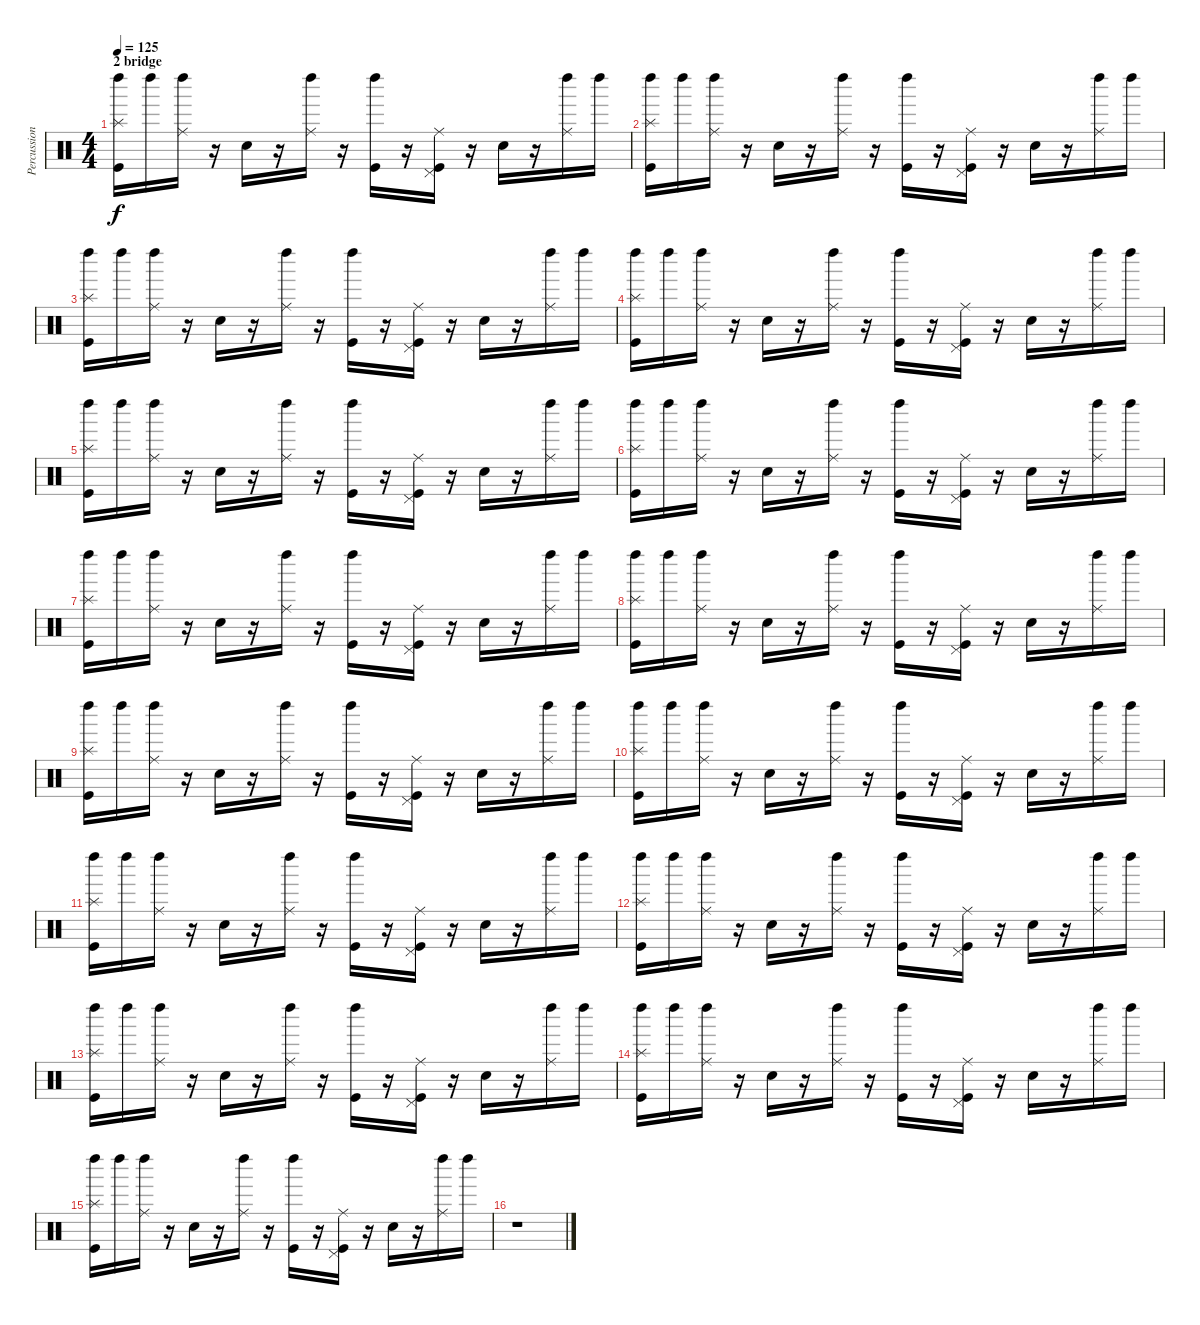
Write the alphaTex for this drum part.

\track ("Percussions" "Percussion") {instrument percussion}
\staff {score}
\articulation defaults
\ts (4 4)
\section ("" "2 bridge")
\tempo 125
\clef neutral
\ks c
("Splash (hit)" "Left Maraca (hit)" "Kick (hit)").16{dy f} "Left Maraca (hit)".16 ("Ride (middle)" "Left Maraca (hit)").16 r.16 "Snare (hit) 2".16 r.16 ("Ride (middle)" "Left Maraca (hit)").16 r.16 ("Left Maraca (hit)" "Kick (hit)").16 r.16 ("Ride (middle)" "Pedal Hi-Hat (hit)" "Kick (hit)").16 r.16 "Snare (hit) 2".16 r.16 ("Ride (middle)" "Left Maraca (hit)").16 "Left Maraca (hit)".16 |
("Splash (hit)" "Left Maraca (hit)" "Kick (hit)").16 "Left Maraca (hit)".16 ("Ride (middle)" "Left Maraca (hit)").16 r.16 "Snare (hit) 2".16 r.16 ("Ride (middle)" "Left Maraca (hit)").16 r.16 ("Left Maraca (hit)" "Kick (hit)").16 r.16 ("Ride (middle)" "Pedal Hi-Hat (hit)" "Kick (hit)").16 r.16 "Snare (hit) 2".16 r.16 ("Ride (middle)" "Left Maraca (hit)").16 "Left Maraca (hit)".16 |
("Splash (hit)" "Left Maraca (hit)" "Kick (hit)").16 "Left Maraca (hit)".16 ("Ride (middle)" "Left Maraca (hit)").16 r.16 "Snare (hit) 2".16 r.16 ("Ride (middle)" "Left Maraca (hit)").16 r.16 ("Left Maraca (hit)" "Kick (hit)").16 r.16 ("Ride (middle)" "Pedal Hi-Hat (hit)" "Kick (hit)").16 r.16 "Snare (hit) 2".16 r.16 ("Ride (middle)" "Left Maraca (hit)").16 "Left Maraca (hit)".16 |
("Splash (hit)" "Left Maraca (hit)" "Kick (hit)").16 "Left Maraca (hit)".16 ("Ride (middle)" "Left Maraca (hit)").16 r.16 "Snare (hit) 2".16 r.16 ("Ride (middle)" "Left Maraca (hit)").16 r.16 ("Left Maraca (hit)" "Kick (hit)").16 r.16 ("Ride (middle)" "Pedal Hi-Hat (hit)" "Kick (hit)").16 r.16 "Snare (hit) 2".16 r.16 ("Ride (middle)" "Left Maraca (hit)").16 "Left Maraca (hit)".16 |
("Splash (hit)" "Left Maraca (hit)" "Kick (hit)").16 "Left Maraca (hit)".16 ("Ride (middle)" "Left Maraca (hit)").16 r.16 "Snare (hit) 2".16 r.16 ("Ride (middle)" "Left Maraca (hit)").16 r.16 ("Left Maraca (hit)" "Kick (hit)").16 r.16 ("Ride (middle)" "Pedal Hi-Hat (hit)" "Kick (hit)").16 r.16 "Snare (hit) 2".16 r.16 ("Ride (middle)" "Left Maraca (hit)").16 "Left Maraca (hit)".16 |
("Splash (hit)" "Left Maraca (hit)" "Kick (hit)").16 "Left Maraca (hit)".16 ("Ride (middle)" "Left Maraca (hit)").16 r.16 "Snare (hit) 2".16 r.16 ("Ride (middle)" "Left Maraca (hit)").16 r.16 ("Left Maraca (hit)" "Kick (hit)").16 r.16 ("Ride (middle)" "Pedal Hi-Hat (hit)" "Kick (hit)").16 r.16 "Snare (hit) 2".16 r.16 ("Ride (middle)" "Left Maraca (hit)").16 "Left Maraca (hit)".16 |
("Splash (hit)" "Left Maraca (hit)" "Kick (hit)").16 "Left Maraca (hit)".16 ("Ride (middle)" "Left Maraca (hit)").16 r.16 "Snare (hit) 2".16 r.16 ("Ride (middle)" "Left Maraca (hit)").16 r.16 ("Left Maraca (hit)" "Kick (hit)").16 r.16 ("Ride (middle)" "Pedal Hi-Hat (hit)" "Kick (hit)").16 r.16 "Snare (hit) 2".16 r.16 ("Ride (middle)" "Left Maraca (hit)").16 "Left Maraca (hit)".16 |
("Splash (hit)" "Left Maraca (hit)" "Kick (hit)").16 "Left Maraca (hit)".16 ("Ride (middle)" "Left Maraca (hit)").16 r.16 "Snare (hit) 2".16 r.16 ("Ride (middle)" "Left Maraca (hit)").16 r.16 ("Left Maraca (hit)" "Kick (hit)").16 r.16 ("Ride (middle)" "Pedal Hi-Hat (hit)" "Kick (hit)").16 r.16 "Snare (hit) 2".16 r.16 ("Ride (middle)" "Left Maraca (hit)").16 "Left Maraca (hit)".16 |
("Splash (hit)" "Left Maraca (hit)" "Kick (hit)").16 "Left Maraca (hit)".16 ("Ride (middle)" "Left Maraca (hit)").16 r.16 "Snare (hit) 2".16 r.16 ("Ride (middle)" "Left Maraca (hit)").16 r.16 ("Left Maraca (hit)" "Kick (hit)").16 r.16 ("Ride (middle)" "Pedal Hi-Hat (hit)" "Kick (hit)").16 r.16 "Snare (hit) 2".16 r.16 ("Ride (middle)" "Left Maraca (hit)").16 "Left Maraca (hit)".16 |
("Splash (hit)" "Left Maraca (hit)" "Kick (hit)").16 "Left Maraca (hit)".16 ("Ride (middle)" "Left Maraca (hit)").16 r.16 "Snare (hit) 2".16 r.16 ("Ride (middle)" "Left Maraca (hit)").16 r.16 ("Left Maraca (hit)" "Kick (hit)").16 r.16 ("Ride (middle)" "Pedal Hi-Hat (hit)" "Kick (hit)").16 r.16 "Snare (hit) 2".16 r.16 ("Ride (middle)" "Left Maraca (hit)").16 "Left Maraca (hit)".16 |
("Splash (hit)" "Left Maraca (hit)" "Kick (hit)").16 "Left Maraca (hit)".16 ("Ride (middle)" "Left Maraca (hit)").16 r.16 "Snare (hit) 2".16 r.16 ("Ride (middle)" "Left Maraca (hit)").16 r.16 ("Left Maraca (hit)" "Kick (hit)").16 r.16 ("Ride (middle)" "Pedal Hi-Hat (hit)" "Kick (hit)").16 r.16 "Snare (hit) 2".16 r.16 ("Ride (middle)" "Left Maraca (hit)").16 "Left Maraca (hit)".16 |
("Splash (hit)" "Left Maraca (hit)" "Kick (hit)").16 "Left Maraca (hit)".16 ("Ride (middle)" "Left Maraca (hit)").16 r.16 "Snare (hit) 2".16 r.16 ("Ride (middle)" "Left Maraca (hit)").16 r.16 ("Left Maraca (hit)" "Kick (hit)").16 r.16 ("Ride (middle)" "Pedal Hi-Hat (hit)" "Kick (hit)").16 r.16 "Snare (hit) 2".16 r.16 ("Ride (middle)" "Left Maraca (hit)").16 "Left Maraca (hit)".16 |
("Splash (hit)" "Left Maraca (hit)" "Kick (hit)").16 "Left Maraca (hit)".16 ("Ride (middle)" "Left Maraca (hit)").16 r.16 "Snare (hit) 2".16 r.16 ("Ride (middle)" "Left Maraca (hit)").16 r.16 ("Left Maraca (hit)" "Kick (hit)").16 r.16 ("Ride (middle)" "Pedal Hi-Hat (hit)" "Kick (hit)").16 r.16 "Snare (hit) 2".16 r.16 ("Ride (middle)" "Left Maraca (hit)").16 "Left Maraca (hit)".16 |
("Splash (hit)" "Left Maraca (hit)" "Kick (hit)").16 "Left Maraca (hit)".16 ("Ride (middle)" "Left Maraca (hit)").16 r.16 "Snare (hit) 2".16 r.16 ("Ride (middle)" "Left Maraca (hit)").16 r.16 ("Left Maraca (hit)" "Kick (hit)").16 r.16 ("Ride (middle)" "Pedal Hi-Hat (hit)" "Kick (hit)").16 r.16 "Snare (hit) 2".16 r.16 ("Ride (middle)" "Left Maraca (hit)").16 "Left Maraca (hit)".16 |
("Splash (hit)" "Left Maraca (hit)" "Kick (hit)").16 "Left Maraca (hit)".16 ("Ride (middle)" "Left Maraca (hit)").16 r.16 "Snare (hit) 2".16 r.16 ("Ride (middle)" "Left Maraca (hit)").16 r.16 ("Left Maraca (hit)" "Kick (hit)").16 r.16 ("Ride (middle)" "Pedal Hi-Hat (hit)" "Kick (hit)").16 r.16 "Snare (hit) 2".16 r.16 ("Ride (middle)" "Left Maraca (hit)").16 "Left Maraca (hit)".16 |
r.1
